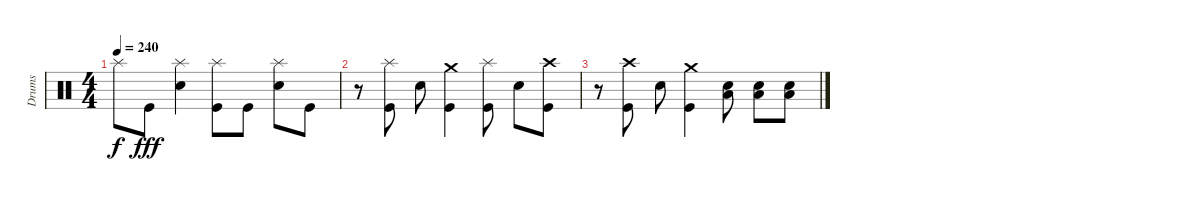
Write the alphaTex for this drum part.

\track ("Drums" "Drums") {instrument percussion}
\staff {score}
\articulation defaults
\ts (4 4)
\tempo 240
\clef neutral
\ks c "Splash (hit)".8{dy f} "Kick (hit)".8{dy fff}
("Electric Snare (hit)" "Splash (hit)").4 ("Kick (hit)" "Splash (hit)").8 "Kick (hit)".8 ("Electric Snare (hit)" "Splash (hit)").8 "Kick (hit)".8 |
r.8 ("Kick (hit)" "Splash (hit)").8 "Electric Snare (hit)".8 ("Kick (hit)" "Crash medium (hit)").4 ("Kick (hit)" "Splash (hit)").8 "Electric Snare (hit)".8 ("Kick (hit)" "Crash high (hit)").8 |
r.8 ("Kick (hit)" "Crash high (hit)").8 "Electric Snare (hit)".8 ("Kick (hit)" "Crash medium (hit)").4 ("Electric Snare (hit)" "Low Floor Tom (hit)").8 ("Electric Snare (hit)" "Low Floor Tom (hit)").8 ("Electric Snare (hit)" "Low Floor Tom (hit)").8
